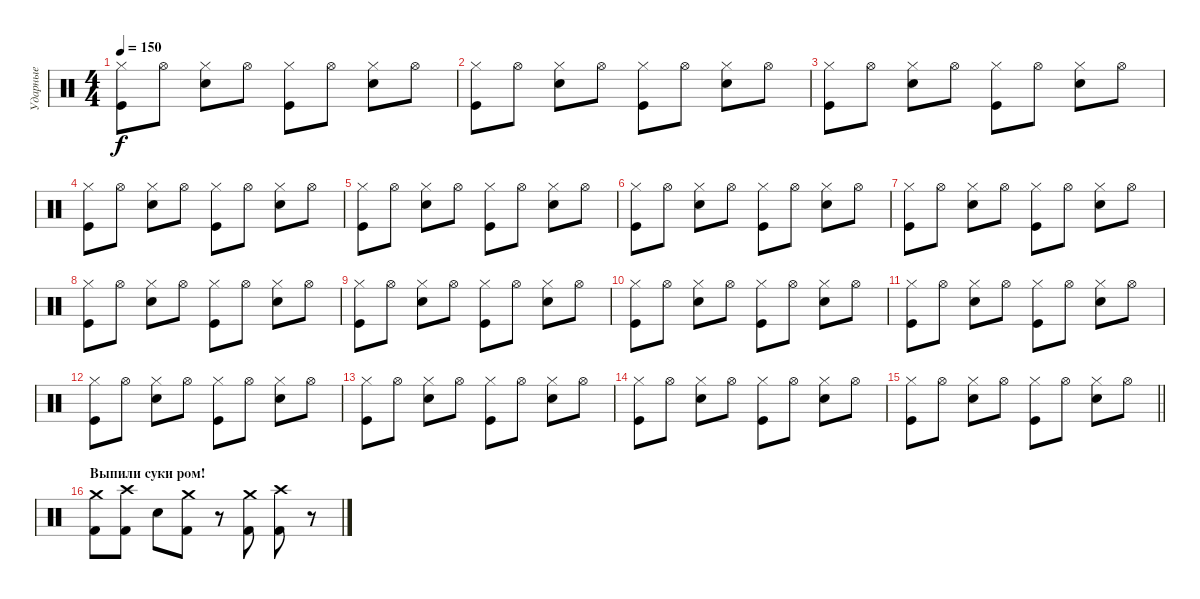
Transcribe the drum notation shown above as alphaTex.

\track ("Ударные" "Ударные") {instrument percussion}
\staff {score}
\articulation defaults
\ts (4 4)
\tempo 150
\clef neutral
\ks c
("Kick (hit)" "Hi-Hat (closed)").8{dy f} "Hi-Hat (open)".8 ("Electric Snare (hit)" "Hi-Hat (closed)").8 "Hi-Hat (open)".8 ("Kick (hit)" "Hi-Hat (closed)").8 "Hi-Hat (open)".8 ("Electric Snare (hit)" "Hi-Hat (closed)").8 "Hi-Hat (open)".8 |
("Kick (hit)" "Hi-Hat (closed)").8 "Hi-Hat (open)".8 ("Electric Snare (hit)" "Hi-Hat (closed)").8 "Hi-Hat (open)".8 ("Kick (hit)" "Hi-Hat (closed)").8 "Hi-Hat (open)".8 ("Electric Snare (hit)" "Hi-Hat (closed)").8 "Hi-Hat (open)".8 |
("Kick (hit)" "Hi-Hat (closed)").8 "Hi-Hat (open)".8 ("Electric Snare (hit)" "Hi-Hat (closed)").8 "Hi-Hat (open)".8 ("Kick (hit)" "Hi-Hat (closed)").8 "Hi-Hat (open)".8 ("Electric Snare (hit)" "Hi-Hat (closed)").8 "Hi-Hat (open)".8 |
("Kick (hit)" "Hi-Hat (closed)").8 "Hi-Hat (open)".8 ("Electric Snare (hit)" "Hi-Hat (closed)").8 "Hi-Hat (open)".8 ("Kick (hit)" "Hi-Hat (closed)").8 "Hi-Hat (open)".8 ("Electric Snare (hit)" "Hi-Hat (closed)").8 "Hi-Hat (open)".8 |
("Kick (hit)" "Hi-Hat (closed)").8 "Hi-Hat (open)".8 ("Electric Snare (hit)" "Hi-Hat (closed)").8 "Hi-Hat (open)".8 ("Kick (hit)" "Hi-Hat (closed)").8 "Hi-Hat (open)".8 ("Electric Snare (hit)" "Hi-Hat (closed)").8 "Hi-Hat (open)".8 |
("Kick (hit)" "Hi-Hat (closed)").8 "Hi-Hat (open)".8 ("Electric Snare (hit)" "Hi-Hat (closed)").8 "Hi-Hat (open)".8 ("Kick (hit)" "Hi-Hat (closed)").8 "Hi-Hat (open)".8 ("Electric Snare (hit)" "Hi-Hat (closed)").8 "Hi-Hat (open)".8 |
("Kick (hit)" "Hi-Hat (closed)").8 "Hi-Hat (open)".8 ("Electric Snare (hit)" "Hi-Hat (closed)").8 "Hi-Hat (open)".8 ("Kick (hit)" "Hi-Hat (closed)").8 "Hi-Hat (open)".8 ("Electric Snare (hit)" "Hi-Hat (closed)").8 "Hi-Hat (open)".8 |
("Kick (hit)" "Hi-Hat (closed)").8 "Hi-Hat (open)".8 ("Electric Snare (hit)" "Hi-Hat (closed)").8 "Hi-Hat (open)".8 ("Kick (hit)" "Hi-Hat (closed)").8 "Hi-Hat (open)".8 ("Electric Snare (hit)" "Hi-Hat (closed)").8 "Hi-Hat (open)".8 |
("Kick (hit)" "Hi-Hat (closed)").8 "Hi-Hat (open)".8 ("Electric Snare (hit)" "Hi-Hat (closed)").8 "Hi-Hat (open)".8 ("Kick (hit)" "Hi-Hat (closed)").8 "Hi-Hat (open)".8 ("Electric Snare (hit)" "Hi-Hat (closed)").8 "Hi-Hat (open)".8 |
("Kick (hit)" "Hi-Hat (closed)").8 "Hi-Hat (open)".8 ("Electric Snare (hit)" "Hi-Hat (closed)").8 "Hi-Hat (open)".8 ("Kick (hit)" "Hi-Hat (closed)").8 "Hi-Hat (open)".8 ("Electric Snare (hit)" "Hi-Hat (closed)").8 "Hi-Hat (open)".8 |
("Kick (hit)" "Hi-Hat (closed)").8 "Hi-Hat (open)".8 ("Electric Snare (hit)" "Hi-Hat (closed)").8 "Hi-Hat (open)".8 ("Kick (hit)" "Hi-Hat (closed)").8 "Hi-Hat (open)".8 ("Electric Snare (hit)" "Hi-Hat (closed)").8 "Hi-Hat (open)".8 |
("Kick (hit)" "Hi-Hat (closed)").8 "Hi-Hat (open)".8 ("Electric Snare (hit)" "Hi-Hat (closed)").8 "Hi-Hat (open)".8 ("Kick (hit)" "Hi-Hat (closed)").8 "Hi-Hat (open)".8 ("Electric Snare (hit)" "Hi-Hat (closed)").8 "Hi-Hat (open)".8 |
("Kick (hit)" "Hi-Hat (closed)").8 "Hi-Hat (open)".8 ("Electric Snare (hit)" "Hi-Hat (closed)").8 "Hi-Hat (open)".8 ("Kick (hit)" "Hi-Hat (closed)").8 "Hi-Hat (open)".8 ("Electric Snare (hit)" "Hi-Hat (closed)").8 "Hi-Hat (open)".8 |
("Kick (hit)" "Hi-Hat (closed)").8 "Hi-Hat (open)".8 ("Electric Snare (hit)" "Hi-Hat (closed)").8 "Hi-Hat (open)".8 ("Kick (hit)" "Hi-Hat (closed)").8 "Hi-Hat (open)".8 ("Electric Snare (hit)" "Hi-Hat (closed)").8 "Hi-Hat (open)".8 |
\barLineRight lightlight
("Kick (hit)" "Hi-Hat (closed)").8 "Hi-Hat (open)".8 ("Electric Snare (hit)" "Hi-Hat (closed)").8 "Hi-Hat (open)".8 ("Kick (hit)" "Hi-Hat (closed)").8 "Hi-Hat (open)".8 ("Electric Snare (hit)" "Hi-Hat (closed)").8 "Hi-Hat (open)".8 |
\section ("" "Выпили суки ром!")
("Crash medium (hit)" "Kick (hit) 2").8 ("Crash high (hit)" "Kick (hit) 2").8 "Snare (hit) 2".8 ("Crash medium (hit)" "Kick (hit) 2").8 r.8 ("Crash medium (hit)" "Kick (hit) 2").8 ("Crash high (hit)" "Kick (hit) 2").8 r.8
